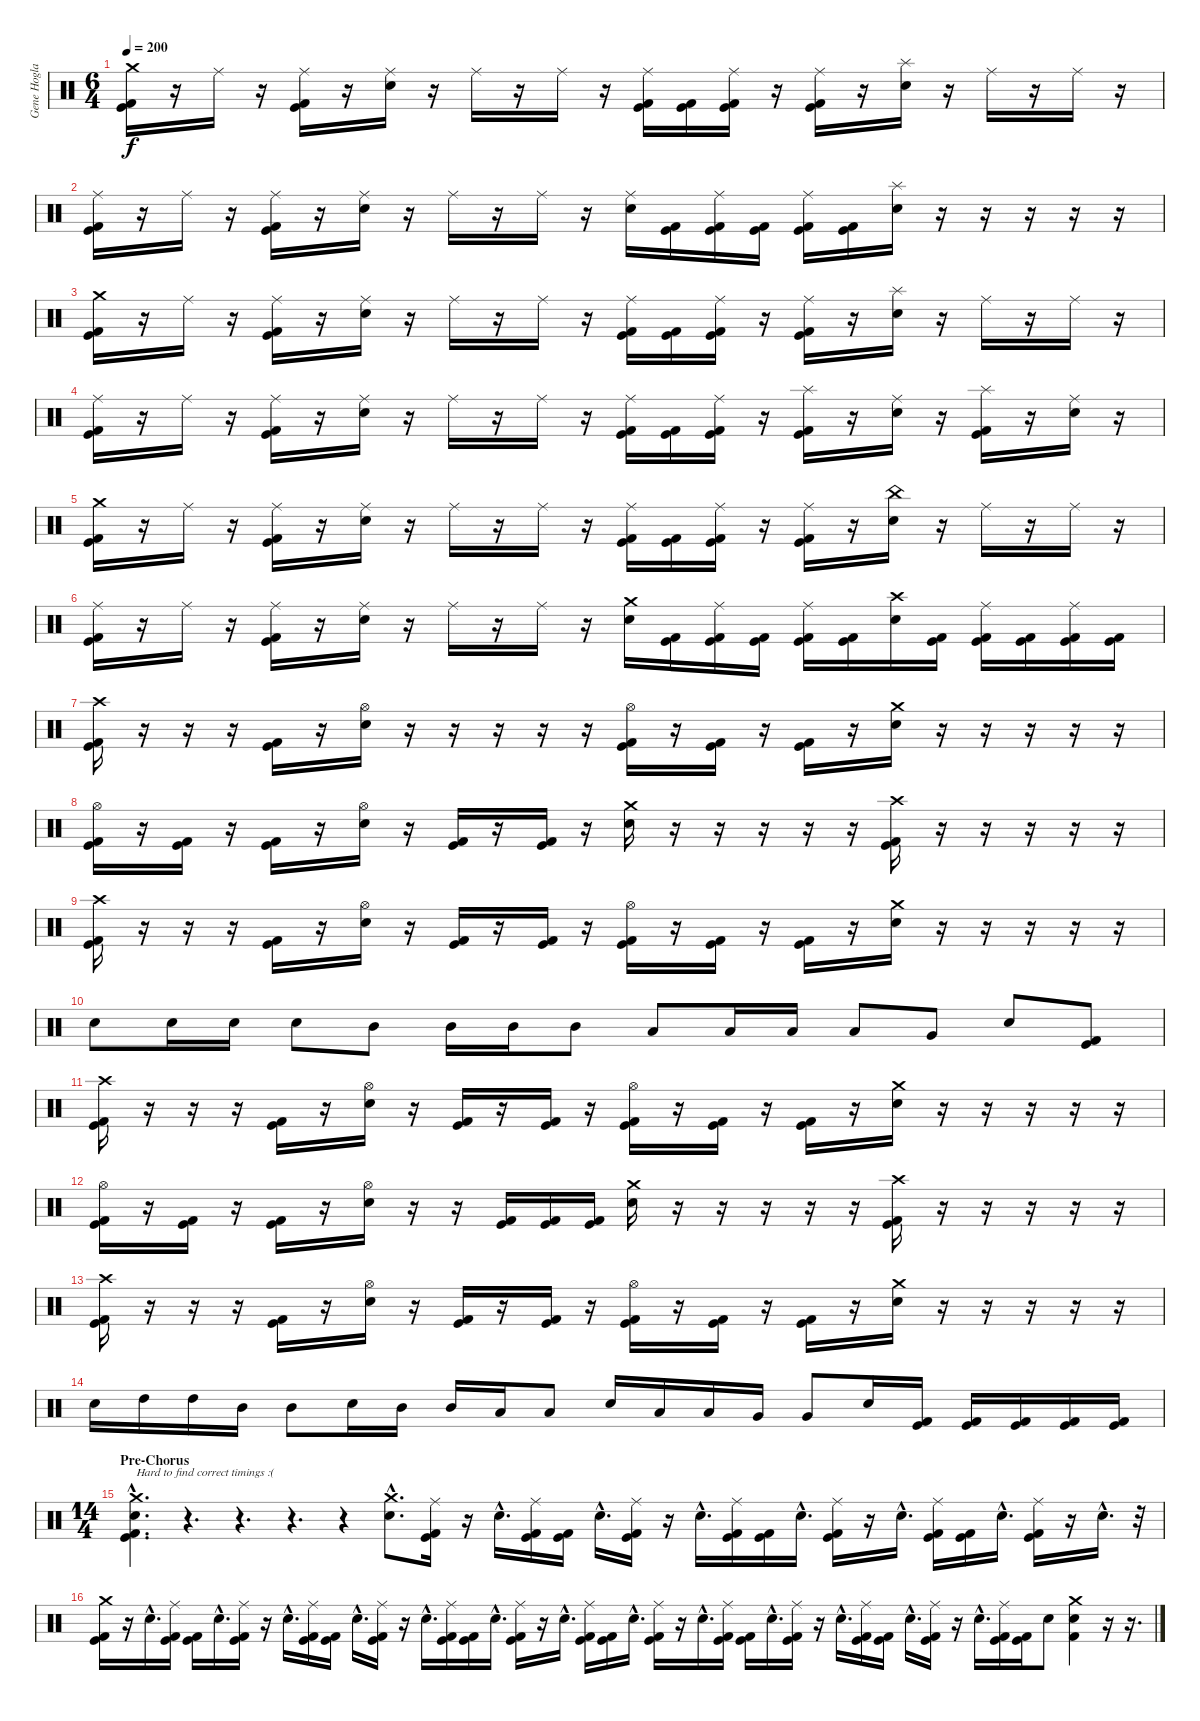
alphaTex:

\track ("Gene Hoglan" "Gene Hogla") {instrument percussion}
\staff {score}
\articulation defaults
\ts (6 4)
\tempo 200
\clef neutral
\ks c
("Crash medium (hit)" "Kick (hit) 2" "Kick (hit)").16{dy f} r.16 "Ride (middle)".16 r.16 ("Ride (middle)" "Kick (hit) 2" "Kick (hit)").16 r.16 ("Ride (middle)" "Electric Snare (hit)").16 r.16 "Ride (middle)".16 r.16 "Ride (middle)".16 r.16 ("Ride (middle)" "Kick (hit) 2" "Kick (hit)").16 ("Kick (hit) 2" "Kick (hit)").16 ("Ride (middle)" "Kick (hit) 2" "Kick (hit)").16 r.16 ("Ride (middle)" "Kick (hit) 2" "Kick (hit)").16 r.16 ("Splash (hit)" "Electric Snare (hit)").16 r.16 "Ride (middle)".16 r.16 "Ride (middle)".16 r.16 |
("Ride (middle)" "Kick (hit) 2" "Kick (hit)").16 r.16 "Ride (middle)".16 r.16 ("Ride (middle)" "Kick (hit) 2" "Kick (hit)").16 r.16 ("Ride (middle)" "Electric Snare (hit)").16 r.16 "Ride (middle)".16 r.16 "Ride (middle)".16 r.16 ("Ride (middle)" "Electric Snare (hit)").16 ("Kick (hit) 2" "Kick (hit)").16 ("Ride (middle)" "Kick (hit) 2" "Kick (hit)").16 ("Kick (hit) 2" "Kick (hit)").16 ("Ride (middle)" "Kick (hit) 2" "Kick (hit)").16 ("Kick (hit) 2" "Kick (hit)").16 ("Splash (hit)" "Electric Snare (hit)").16 r.16 r.16 r.16 r.16 r.16 |
("Crash medium (hit)" "Kick (hit) 2" "Kick (hit)").16 r.16 "Ride (middle)".16 r.16 ("Ride (middle)" "Kick (hit) 2" "Kick (hit)").16 r.16 ("Ride (middle)" "Electric Snare (hit)").16 r.16 "Ride (middle)".16 r.16 "Ride (middle)".16 r.16 ("Ride (middle)" "Kick (hit) 2" "Kick (hit)").16 ("Kick (hit) 2" "Kick (hit)").16 ("Ride (middle)" "Kick (hit) 2" "Kick (hit)").16 r.16 ("Ride (middle)" "Kick (hit) 2" "Kick (hit)").16 r.16 ("Splash (hit)" "Electric Snare (hit)").16 r.16 "Ride (middle)".16 r.16 "Ride (middle)".16 r.16 |
("Ride (middle)" "Kick (hit) 2" "Kick (hit)").16 r.16 "Ride (middle)".16 r.16 ("Ride (middle)" "Kick (hit) 2" "Kick (hit)").16 r.16 ("Ride (middle)" "Electric Snare (hit)").16 r.16 "Ride (middle)".16 r.16 "Ride (middle)".16 r.16 ("Ride (middle)" "Kick (hit) 2" "Kick (hit)").16 ("Kick (hit) 2" "Kick (hit)").16 ("Ride (middle)" "Kick (hit) 2" "Kick (hit)").16 r.16 ("Splash (hit)" "Kick (hit) 2" "Kick (hit)").16 r.16 ("Ride (middle)" "Electric Snare (hit)").16 r.16 ("Splash (hit)" "Kick (hit) 2" "Kick (hit)").16 r.16 ("Ride (middle)" "Electric Snare (hit)").16 r.16 |
("Crash medium (hit)" "Kick (hit) 2" "Kick (hit)").16 r.16 "Ride (middle)".16 r.16 ("Ride (middle)" "Kick (hit) 2" "Kick (hit)").16 r.16 ("Ride (middle)" "Electric Snare (hit)").16 r.16 "Ride (middle)".16 r.16 "Ride (middle)".16 r.16 ("Ride (middle)" "Kick (hit) 2" "Kick (hit)").16 ("Kick (hit) 2" "Kick (hit)").16 ("Ride (middle)" "Kick (hit) 2" "Kick (hit)").16 r.16 ("Ride (middle)" "Kick (hit) 2" "Kick (hit)").16 r.16 ("China (hit)" "Electric Snare (hit)").16 r.16 "Ride (middle)".16 r.16 "Ride (middle)".16 r.16 |
("Ride (middle)" "Kick (hit) 2" "Kick (hit)").16 r.16 "Ride (middle)".16 r.16 ("Ride (middle)" "Kick (hit) 2" "Kick (hit)").16 r.16 ("Ride (middle)" "Electric Snare (hit)").16 r.16 "Ride (middle)".16 r.16 "Ride (middle)".16 r.16 ("Crash medium (hit)" "Electric Snare (hit)").16 ("Kick (hit) 2" "Kick (hit)").16 ("Ride (middle)" "Kick (hit) 2" "Kick (hit)").16 ("Kick (hit) 2" "Kick (hit)").16 ("Ride (middle)" "Kick (hit) 2" "Kick (hit)").16 ("Kick (hit) 2" "Kick (hit)").16 ("Crash high (hit)" "Electric Snare (hit)").16 ("Kick (hit) 2" "Kick (hit)").16 ("Ride (middle)" "Kick (hit) 2" "Kick (hit)").16 ("Kick (hit) 2" "Kick (hit)").16 ("Ride (middle)" "Kick (hit) 2" "Kick (hit)").16 ("Kick (hit) 2" "Kick (hit)").16 |
("Crash high (hit)" "Kick (hit) 2" "Kick (hit)").16 r.16 r.16 r.16 ("Kick (hit) 2" "Kick (hit)").16 r.16 ("Hi-Hat (open)" "Electric Snare (hit)").16 r.16 r.16 r.16 r.16 r.16 ("Hi-Hat (open)" "Kick (hit) 2" "Kick (hit)").16 r.16 ("Kick (hit) 2" "Kick (hit)").16 r.16 ("Kick (hit) 2" "Kick (hit)").16 r.16 ("Crash medium (hit)" "Electric Snare (hit)").16 r.16 r.16 r.16 r.16 r.16 |
("Hi-Hat (open)" "Kick (hit) 2" "Kick (hit)").16 r.16 ("Kick (hit) 2" "Kick (hit)").16 r.16 ("Kick (hit)" "Kick (hit) 2").16 r.16 ("Hi-Hat (open)" "Electric Snare (hit)").16 r.16 ("Kick (hit)" "Kick (hit) 2").16 r.16 ("Kick (hit) 2" "Kick (hit)").16 r.16 ("Crash medium (hit)" "Electric Snare (hit)").16 r.16 r.16 r.16 r.16 r.16 ("Crash high (hit)" "Kick (hit) 2" "Kick (hit)").16 r.16 r.16 r.16 r.16 r.16 |
("Crash high (hit)" "Kick (hit) 2" "Kick (hit)").16 r.16 r.16 r.16 ("Kick (hit) 2" "Kick (hit)").16 r.16 ("Hi-Hat (open)" "Electric Snare (hit)").16 r.16 ("Kick (hit) 2" "Kick (hit)").16 r.16 ("Kick (hit) 2" "Kick (hit)").16 r.16 ("Hi-Hat (open)" "Kick (hit) 2" "Kick (hit)").16 r.16 ("Kick (hit) 2" "Kick (hit)").16 r.16 ("Kick (hit) 2" "Kick (hit)").16 r.16 ("Crash medium (hit)" "Electric Snare (hit)").16 r.16 r.16 r.16 r.16 r.16 |
"Electric Snare (hit)".8 "Electric Snare (hit)".16 "Electric Snare (hit)".16 "Electric Snare (hit)".8 "Mid Tom (hit)".8 "Mid Tom (hit)".16 "Mid Tom (hit)".16 "Mid Tom (hit)".8 "Low Tom (hit)".8 "Low Tom (hit)".16 "Low Tom (hit)".16 "Low Tom (hit)".8 "Very Low Tom (hit)".8 "Electric Snare (hit)".8 ("Kick (hit) 2" "Kick (hit)").8 |
("Crash high (hit)" "Kick (hit) 2" "Kick (hit)").16 r.16 r.16 r.16 ("Kick (hit) 2" "Kick (hit)").16 r.16 ("Hi-Hat (open)" "Electric Snare (hit)").16 r.16 ("Kick (hit) 2" "Kick (hit)").16 r.16 ("Kick (hit) 2" "Kick (hit)").16 r.16 ("Hi-Hat (open)" "Kick (hit) 2" "Kick (hit)").16 r.16 ("Kick (hit) 2" "Kick (hit)").16 r.16 ("Kick (hit) 2" "Kick (hit)").16 r.16 ("Crash medium (hit)" "Electric Snare (hit)").16 r.16 r.16 r.16 r.16 r.16 |
("Hi-Hat (open)" "Kick (hit) 2" "Kick (hit)").16 r.16 ("Kick (hit) 2" "Kick (hit)").16 r.16 ("Kick (hit)" "Kick (hit) 2").16 r.16 ("Hi-Hat (open)" "Electric Snare (hit)").16 r.16 r.16 ("Kick (hit) 2" "Kick (hit)").16 ("Kick (hit) 2" "Kick (hit)").16 ("Kick (hit) 2" "Kick (hit)").16 ("Crash medium (hit)" "Electric Snare (hit)").16 r.16 r.16 r.16 r.16 r.16 ("Crash high (hit)" "Kick (hit) 2" "Kick (hit)").16 r.16 r.16 r.16 r.16 r.16 |
("Crash high (hit)" "Kick (hit) 2" "Kick (hit)").16 r.16 r.16 r.16 ("Kick (hit) 2" "Kick (hit)").16 r.16 ("Hi-Hat (open)" "Electric Snare (hit)").16 r.16 ("Kick (hit) 2" "Kick (hit)").16 r.16 ("Kick (hit) 2" "Kick (hit)").16 r.16 ("Hi-Hat (open)" "Kick (hit) 2" "Kick (hit)").16 r.16 ("Kick (hit) 2" "Kick (hit)").16 r.16 ("Kick (hit) 2" "Kick (hit)").16 r.16 ("Crash medium (hit)" "Electric Snare (hit)").16 r.16 r.16 r.16 r.16 r.16 |
"Electric Snare (hit)".16 "High Tom (hit)".16 "High Tom (hit)".16 "Mid Tom (hit)".16 "Mid Tom (hit)".8 "Electric Snare (hit)".16 "Mid Tom (hit)".16 "Mid Tom (hit)".16 "Low Tom (hit)".16 "Low Tom (hit)".8 "Electric Snare (hit)".16 "Low Tom (hit)".16 "Low Tom (hit)".16 "Very Low Tom (hit)".16 "Very Low Tom (hit)".8 "Electric Snare (hit)".16 ("Kick (hit) 2" "Kick (hit)").16 ("Kick (hit) 2" "Kick (hit)").16 ("Kick (hit) 2" "Kick (hit)").16 ("Kick (hit) 2" "Kick (hit)").16 ("Kick (hit) 2" "Kick (hit)").16 |
\ts (14 4)
\section ("" "Pre-Chorus")
("Crash medium (hit)"{hac} "Electric Snare (hit)"{hac} "Kick (hit) 2"{hac} "Kick (hit)"{hac}).4{d txt "Hard to find correct timings :("} r.4{d} r.4{d} r.4{d} r.4 ("Crash medium (hit)"{hac} "Electric Snare (hit)"{hac}).8{d} ("Ride (middle)" "Kick (hit) 2" "Kick (hit)").16 r.16 "Electric Snare (hit)"{hac}.16{d} ("Ride (middle)" "Kick (hit) 2" "Kick (hit)").16 ("Kick (hit) 2" "Kick (hit)").16 "Electric Snare (hit)"{hac}.16{d} ("Ride (middle)" "Kick (hit) 2" "Kick (hit)").16 r.16 "Electric Snare (hit)"{hac}.16{d} ("Ride (middle)" "Kick (hit) 2" "Kick (hit)").16 ("Kick (hit) 2" "Kick (hit)").16 "Electric Snare (hit)"{hac}.16{d} ("Ride (middle)" "Kick (hit) 2" "Kick (hit)").16 r.16 "Electric Snare (hit)"{hac}.16{d} ("Ride (middle)" "Kick (hit) 2" "Kick (hit)").16 ("Kick (hit) 2" "Kick (hit)").16 "Electric Snare (hit)"{hac}.16{d} ("Ride (middle)" "Kick (hit) 2" "Kick (hit)").16 r.16 "Electric Snare (hit)"{hac}.16{d} r.32 |
("Crash medium (hit)" "Kick (hit) 2" "Kick (hit)").16 r.16 "Electric Snare (hit)"{hac}.16{d} ("Ride (middle)" "Kick (hit) 2" "Kick (hit)").16 ("Kick (hit) 2" "Kick (hit)").16 "Electric Snare (hit)"{hac}.16{d} ("Ride (middle)" "Kick (hit) 2" "Kick (hit)").16 r.16 "Electric Snare (hit)"{hac}.16{d} ("Ride (middle)" "Kick (hit) 2" "Kick (hit)").16 ("Kick (hit) 2" "Kick (hit)").16 "Electric Snare (hit)"{hac}.16{d} ("Ride (middle)" "Kick (hit) 2" "Kick (hit)").16 r.16 "Electric Snare (hit)"{hac}.16{d} ("Ride (middle)" "Kick (hit) 2" "Kick (hit)").16 ("Kick (hit) 2" "Kick (hit)").16 "Electric Snare (hit)"{hac}.16{d} ("Ride (middle)" "Kick (hit) 2" "Kick (hit)").16 r.16 "Electric Snare (hit)"{hac}.16{d} ("Ride (middle)" "Kick (hit) 2" "Kick (hit)").16 ("Kick (hit) 2" "Kick (hit)").16 "Electric Snare (hit)"{hac}.16{d} ("Ride (middle)" "Kick (hit) 2" "Kick (hit)").16 r.16 "Electric Snare (hit)"{hac}.16{d} ("Ride (middle)" "Kick (hit) 2" "Kick (hit)").16 ("Kick (hit) 2" "Kick (hit)").16 "Electric Snare (hit)"{hac}.16{d} ("Ride (middle)" "Kick (hit) 2" "Kick (hit)").16 r.16 "Electric Snare (hit)"{hac}.16{d} ("Ride (middle)" "Kick (hit) 2" "Kick (hit)").16 ("Kick (hit) 2" "Kick (hit)").16 "Electric Snare (hit)"{hac}.16{d} ("Ride (middle)" "Kick (hit) 2" "Kick (hit)").16 r.16 "Electric Snare (hit)"{hac}.16{d} ("Ride (middle)" "Kick (hit) 2" "Kick (hit)").16 ("Kick (hit) 2" "Kick (hit)").16 "Electric Snare (hit)".8 ("Crash medium (hit)" "Electric Snare (hit)" "Kick (hit) 2").4 r.16 r.16{d}
